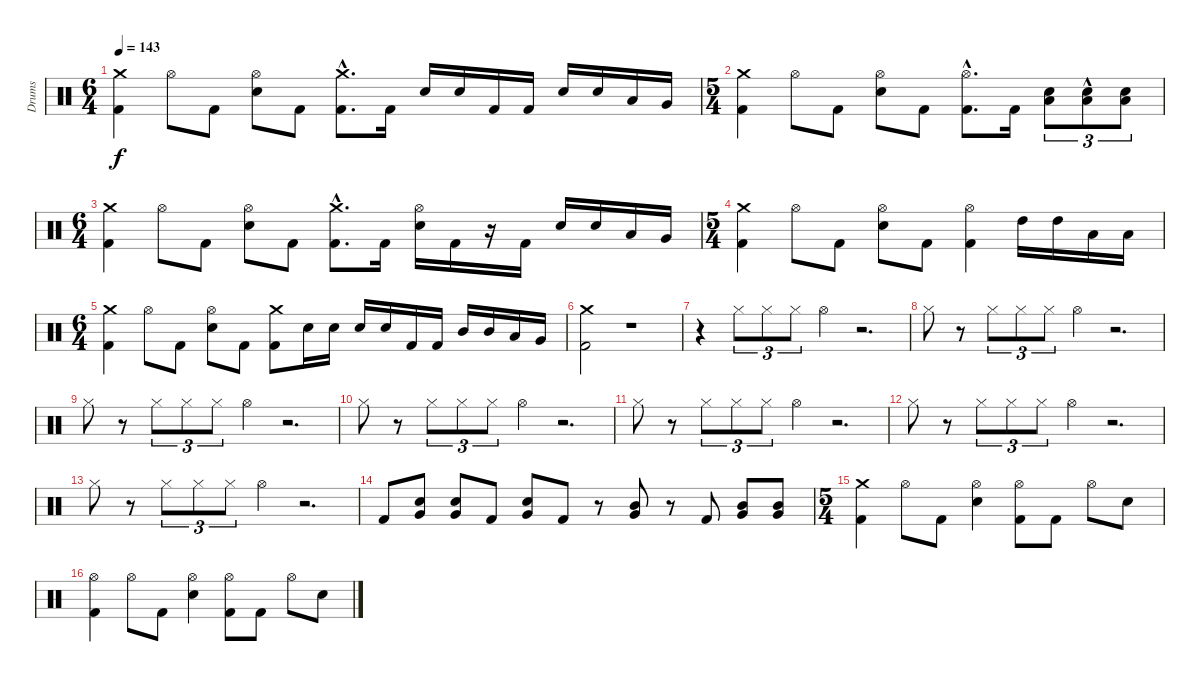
\track ("Drums" "Drums") {instrument percussion}
\staff {score}
\articulation defaults
\ts (6 4)
\tempo 143
\clef neutral
\ks c
("Crash medium (hit)" "Kick (hit) 2").4{dy f} "Hi-Hat (open)".8 "Kick (hit) 2".8 ("Hi-Hat (open)" "Electric Snare (hit)").8 "Kick (hit) 2".8 ("Crash medium (hit)" "Kick (hit) 2"{hac}).8{d} "Kick (hit) 2".16 "Electric Snare (hit)".16 "Electric Snare (hit)".16 "Kick (hit) 2".16 "Kick (hit) 2".16 "Electric Snare (hit)".16 "Electric Snare (hit)".16 "Low Tom (hit)".16 "Very Low Tom (hit)".16 |
\ts (5 4)
("Crash medium (hit)" "Kick (hit) 2").4 "Hi-Hat (open)".8 "Kick (hit) 2".8 ("Hi-Hat (open)" "Electric Snare (hit)").8 "Kick (hit) 2".8 ("Hi-Hat (open)" "Kick (hit) 2"{hac}).8{d} "Kick (hit) 2".16 ("Low Tom (hit)" "Electric Snare (hit)").8{tu (3 2)} ("Low Tom (hit)"{hac} "Electric Snare (hit)").8{tu (3 2)} ("Low Tom (hit)" "Electric Snare (hit)").8{tu (3 2)} |
\ts (6 4)
("Crash medium (hit)" "Kick (hit) 2").4 "Hi-Hat (open)".8 "Kick (hit) 2".8 ("Hi-Hat (open)" "Electric Snare (hit)").8 "Kick (hit) 2".8 ("Crash medium (hit)" "Kick (hit) 2"{hac}).8{d} "Kick (hit) 2".16 ("Hi-Hat (open)" "Electric Snare (hit)").16 "Kick (hit) 2".16 r.16 "Kick (hit) 2".16 "Electric Snare (hit)".16 "Electric Snare (hit)".16 "Low Tom (hit)".16 "Very Low Tom (hit)".16 |
\ts (5 4)
("Crash medium (hit)" "Kick (hit) 2").4 "Hi-Hat (open)".8 "Kick (hit) 2".8 ("Hi-Hat (open)" "Electric Snare (hit)").8 "Kick (hit) 2".8 ("Hi-Hat (open)" "Kick (hit) 2").4 "High Tom (hit)".16 "High Tom (hit)".16 "Low Tom (hit)".16 "Low Tom (hit)".16 |
\ts (6 4)
("Crash medium (hit)" "Kick (hit) 2").4 "Hi-Hat (open)".8 "Kick (hit) 2".8 ("Hi-Hat (open)" "Electric Snare (hit)").8 "Kick (hit) 2".8 ("Crash medium (hit)" "Kick (hit) 2").8 "Electric Snare (hit)".16 "Electric Snare (hit)".16 "Electric Snare (hit)".16 "Electric Snare (hit)".16 "Kick (hit) 2".16 "Kick (hit) 2".16 "Mid Tom (hit)".16 "Mid Tom (hit)".16 "Low Tom (hit)".16 "Very Low Tom (hit)".16 |
("Crash medium (hit)" "Kick (hit) 2").2 r.1 |
r.4 "Hi-Hat (closed)".8{tu (3 2)} "Hi-Hat (closed)".8{tu (3 2)} "Hi-Hat (closed)".8{tu (3 2)} "Hi-Hat (open)".4 r.2{d} |
"Hi-Hat (closed)".8 r.8 "Hi-Hat (closed)".8{tu (3 2)} "Hi-Hat (closed)".8{tu (3 2)} "Hi-Hat (closed)".8{tu (3 2)} "Hi-Hat (open)".4 r.2{d} |
"Hi-Hat (closed)".8 r.8 "Hi-Hat (closed)".8{tu (3 2)} "Hi-Hat (closed)".8{tu (3 2)} "Hi-Hat (closed)".8{tu (3 2)} "Hi-Hat (open)".4 r.2{d} |
"Hi-Hat (closed)".8 r.8 "Hi-Hat (closed)".8{tu (3 2)} "Hi-Hat (closed)".8{tu (3 2)} "Hi-Hat (closed)".8{tu (3 2)} "Hi-Hat (open)".4 r.2{d} |
"Hi-Hat (closed)".8 r.8 "Hi-Hat (closed)".8{tu (3 2)} "Hi-Hat (closed)".8{tu (3 2)} "Hi-Hat (closed)".8{tu (3 2)} "Hi-Hat (open)".4 r.2{d} |
"Hi-Hat (closed)".8 r.8 "Hi-Hat (closed)".8{tu (3 2)} "Hi-Hat (closed)".8{tu (3 2)} "Hi-Hat (closed)".8{tu (3 2)} "Hi-Hat (open)".4 r.2{d} |
"Hi-Hat (closed)".8 r.8 "Hi-Hat (closed)".8{tu (3 2)} "Hi-Hat (closed)".8{tu (3 2)} "Hi-Hat (closed)".8{tu (3 2)} "Hi-Hat (open)".4 r.2{d} |
"Kick (hit) 2".8 ("Very Low Tom (hit)" "Electric Snare (hit)").8 ("Very Low Tom (hit)" "Electric Snare (hit)").8 "Kick (hit) 2".8 ("Very Low Tom (hit)" "Electric Snare (hit)").8 "Kick (hit) 2".8 r.8 ("Very Low Tom (hit)" "Mid Tom (hit)").8 r.8 "Kick (hit) 2".8 ("Mid Tom (hit)" "Very Low Tom (hit)").8 ("Very Low Tom (hit)" "Mid Tom (hit)").8 |
\ts (5 4)
("Crash medium (hit)" "Kick (hit) 2").4 "Hi-Hat (open)".8 "Kick (hit) 2".8 ("Hi-Hat (open)" "Electric Snare (hit)").4 ("Hi-Hat (open)" "Kick (hit) 2").8 "Kick (hit) 2".8 "Hi-Hat (open)".8 "Electric Snare (hit)".8 |
("Hi-Hat (open)" "Kick (hit) 2").4 "Hi-Hat (open)".8 "Kick (hit) 2".8 ("Hi-Hat (open)" "Electric Snare (hit)").4 ("Hi-Hat (open)" "Kick (hit) 2").8 "Kick (hit) 2".8 "Hi-Hat (open)".8 "Electric Snare (hit)".8
